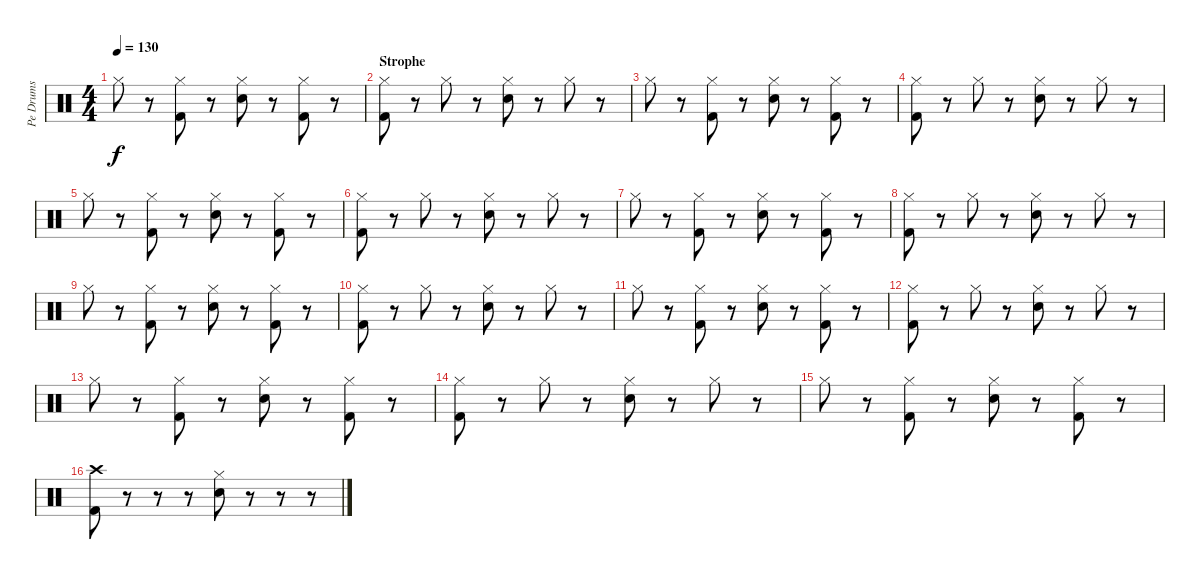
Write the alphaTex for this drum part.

\track ("Pe Drums" "Pe Drums") {instrument percussion}
\staff {score}
\articulation defaults
\ts (4 4)
\tempo 130
\clef neutral
\ks c "Hi-Hat (closed)".8{dy f}
r.8 ("Hi-Hat (closed)" "Kick (hit) 2").8 r.8 ("Hi-Hat (closed)" "Electric Snare (hit)").8 r.8 ("Hi-Hat (closed)" "Kick (hit) 2").8 r.8 |
\section ("" "Strophe")
("Hi-Hat (closed)" "Kick (hit) 2").8 r.8 "Hi-Hat (closed)".8 r.8 ("Hi-Hat (closed)" "Electric Snare (hit)").8 r.8 "Hi-Hat (closed)".8 r.8 |
"Hi-Hat (closed)".8 r.8 ("Hi-Hat (closed)" "Kick (hit) 2").8 r.8 ("Hi-Hat (closed)" "Electric Snare (hit)").8 r.8 ("Hi-Hat (closed)" "Kick (hit) 2").8 r.8 |
("Hi-Hat (closed)" "Kick (hit) 2").8 r.8 "Hi-Hat (closed)".8 r.8 ("Hi-Hat (closed)" "Electric Snare (hit)").8 r.8 "Hi-Hat (closed)".8 r.8 |
"Hi-Hat (closed)".8 r.8 ("Hi-Hat (closed)" "Kick (hit) 2").8 r.8 ("Hi-Hat (closed)" "Electric Snare (hit)").8 r.8 ("Hi-Hat (closed)" "Kick (hit) 2").8 r.8 |
("Hi-Hat (closed)" "Kick (hit) 2").8 r.8 "Hi-Hat (closed)".8 r.8 ("Hi-Hat (closed)" "Electric Snare (hit)").8 r.8 "Hi-Hat (closed)".8 r.8 |
"Hi-Hat (closed)".8 r.8 ("Hi-Hat (closed)" "Kick (hit) 2").8 r.8 ("Hi-Hat (closed)" "Electric Snare (hit)").8 r.8 ("Hi-Hat (closed)" "Kick (hit) 2").8 r.8 |
("Hi-Hat (closed)" "Kick (hit) 2").8 r.8 "Hi-Hat (closed)".8 r.8 ("Hi-Hat (closed)" "Electric Snare (hit)").8 r.8 "Hi-Hat (closed)".8 r.8 |
"Hi-Hat (closed)".8 r.8 ("Hi-Hat (closed)" "Kick (hit) 2").8 r.8 ("Hi-Hat (closed)" "Electric Snare (hit)").8 r.8 ("Hi-Hat (closed)" "Kick (hit) 2").8 r.8 |
("Hi-Hat (closed)" "Kick (hit) 2").8 r.8 "Hi-Hat (closed)".8 r.8 ("Hi-Hat (closed)" "Electric Snare (hit)").8 r.8 "Hi-Hat (closed)".8 r.8 |
"Hi-Hat (closed)".8 r.8 ("Hi-Hat (closed)" "Kick (hit) 2").8 r.8 ("Hi-Hat (closed)" "Electric Snare (hit)").8 r.8 ("Hi-Hat (closed)" "Kick (hit) 2").8 r.8 |
("Hi-Hat (closed)" "Kick (hit) 2").8 r.8 "Hi-Hat (closed)".8 r.8 ("Hi-Hat (closed)" "Electric Snare (hit)").8 r.8 "Hi-Hat (closed)".8 r.8 |
"Hi-Hat (closed)".8 r.8 ("Hi-Hat (closed)" "Kick (hit) 2").8 r.8 ("Hi-Hat (closed)" "Electric Snare (hit)").8 r.8 ("Hi-Hat (closed)" "Kick (hit) 2").8 r.8 |
("Hi-Hat (closed)" "Kick (hit) 2").8 r.8 "Hi-Hat (closed)".8 r.8 ("Hi-Hat (closed)" "Electric Snare (hit)").8 r.8 "Hi-Hat (closed)".8 r.8 |
"Hi-Hat (closed)".8 r.8 ("Hi-Hat (closed)" "Kick (hit) 2").8 r.8 ("Hi-Hat (closed)" "Electric Snare (hit)").8 r.8 ("Hi-Hat (closed)" "Kick (hit) 2").8 r.8 |
("Crash high (hit)" "Kick (hit) 2").8 r.8 r.8 r.8 ("Hi-Hat (closed)" "Electric Snare (hit)").8 r.8 r.8 r.8
